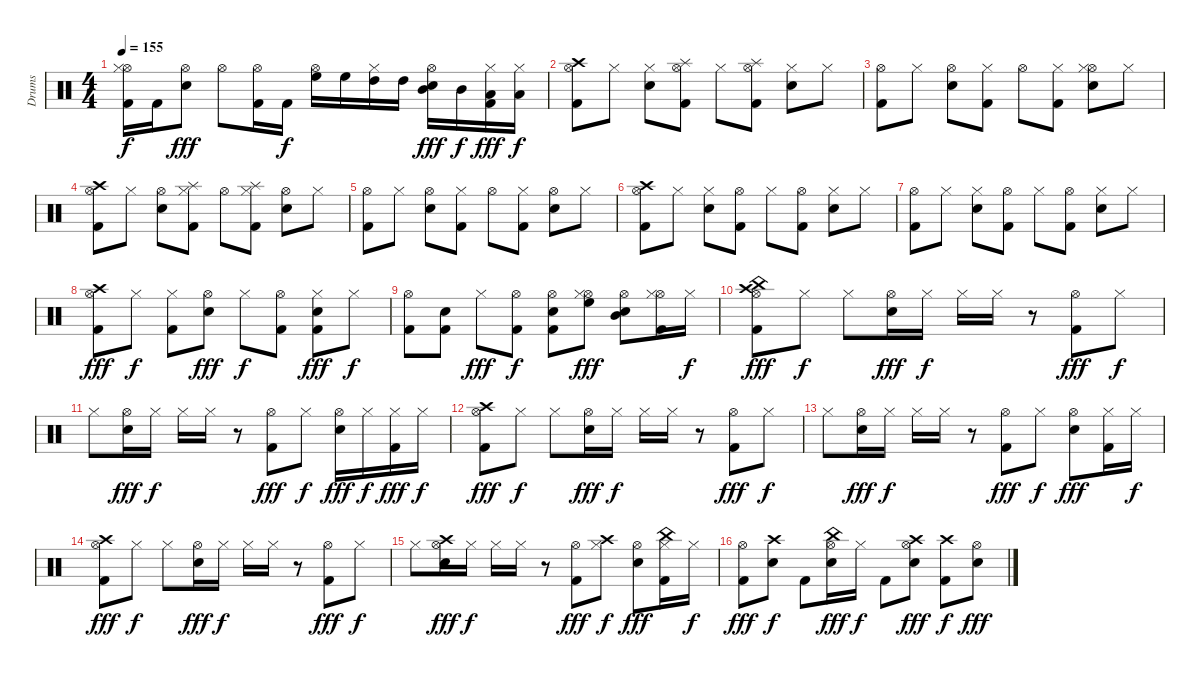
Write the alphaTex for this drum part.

\track ("Drums" "Drums") {instrument percussion}
\staff {score}
\articulation defaults
\ts (4 4)
\tempo 155
\clef neutral
\ks c
("Hi-Hat (open)" "Kick (hit) 2" "Hi-Hat (closed)").16{dy f} "Kick (hit) 2".16 ("Electric Snare (hit)" "Hi-Hat (open)").8{dy fff} "Hi-Hat (open)".8 ("Kick (hit) 2" "Hi-Hat (open)").16 "Kick (hit) 2".16{dy f} ("High Floor Tom (hit)" "Hi-Hat (open)").16 "High Floor Tom (hit)".16 ("High Tom (hit)" "Hi-Hat (closed)").16 "High Tom (hit)".16 ("Mid Tom (hit)" "Hi-Hat (open)" "Electric Snare (hit)").16{dy fff} "Mid Tom (hit)".16{dy f} ("Low Tom (hit)" "Hi-Hat (closed)" "Kick (hit) 2").16{dy fff} ("Low Tom (hit)" "Hi-Hat (closed)").16{dy f} |
("Crash high (hit)" "Hi-Hat (open)" "Kick (hit) 2").8 "Hi-Hat (closed)".8 ("Hi-Hat (closed)" "Electric Snare (hit)").8 ("Splash (hit)" "Hi-Hat (open)" "Kick (hit) 2").8 "Hi-Hat (closed)".8 ("Splash (hit)" "Hi-Hat (open)" "Kick (hit) 2").8 ("Hi-Hat (closed)" "Electric Snare (hit)").8 "Hi-Hat (closed)".8 |
("Kick (hit) 2" "Hi-Hat (open)").8 "Hi-Hat (closed)".8 ("Hi-Hat (open)" "Electric Snare (hit)").8 ("Hi-Hat (closed)" "Kick (hit) 2").8 "Hi-Hat (open)".8 ("Hi-Hat (closed)" "Kick (hit) 2").8 ("Hi-Hat (open)" "Hi-Hat (closed)" "Electric Snare (hit)").8 "Hi-Hat (closed)".8 |
("Crash high (hit)" "Hi-Hat (open)" "Kick (hit) 2").8 "Hi-Hat (closed)".8 ("Hi-Hat (open)" "Electric Snare (hit)").8 ("Hi-Hat (closed)" "Splash (hit)" "Kick (hit) 2").8 "Hi-Hat (open)".8 ("Hi-Hat (closed)" "Splash (hit)" "Kick (hit) 2").8 ("Hi-Hat (open)" "Electric Snare (hit)").8 "Hi-Hat (closed)".8 |
("Kick (hit) 2" "Hi-Hat (open)").8 "Hi-Hat (closed)".8 ("Hi-Hat (open)" "Electric Snare (hit)").8 ("Hi-Hat (closed)" "Kick (hit) 2").8 "Hi-Hat (open)".8 ("Hi-Hat (closed)" "Kick (hit) 2").8 ("Hi-Hat (open)" "Electric Snare (hit)").8 "Hi-Hat (closed)".8 |
("Crash high (hit)" "Hi-Hat (open)" "Kick (hit) 2").8 "Hi-Hat (closed)".8 ("Hi-Hat (closed)" "Electric Snare (hit)").8 ("Hi-Hat (open)" "Kick (hit) 2").8 "Hi-Hat (closed)".8 ("Hi-Hat (open)" "Kick (hit) 2").8 ("Hi-Hat (closed)" "Electric Snare (hit)").8 "Hi-Hat (closed)".8 |
("Kick (hit) 2" "Hi-Hat (open)").8 "Hi-Hat (closed)".8 ("Hi-Hat (closed)" "Electric Snare (hit)").8 ("Kick (hit) 2" "Hi-Hat (open)").8 "Hi-Hat (closed)".8 ("Kick (hit) 2" "Hi-Hat (open)").8 ("Hi-Hat (closed)" "Electric Snare (hit)").8 "Hi-Hat (closed)".8 |
("Crash high (hit)" "Kick (hit) 2" "Hi-Hat (open)").8{dy fff} "Hi-Hat (closed)".8{dy f} ("Kick (hit) 2" "Hi-Hat (closed)").8 ("Hi-Hat (open)" "Electric Snare (hit)").8{dy fff} "Hi-Hat (closed)".8{dy f} ("Kick (hit) 2" "Hi-Hat (open)").8 ("Kick (hit) 2" "Hi-Hat (closed)" "Electric Snare (hit)").8{dy fff} "Hi-Hat (closed)".8{dy f} |
("Kick (hit) 2" "Hi-Hat (open)").8 ("Kick (hit) 2" "Electric Snare (hit)").8 "Hi-Hat (closed)".8{dy fff} ("Kick (hit) 2" "Hi-Hat (open)").8{dy f} ("Kick (hit) 2" "Electric Snare (hit)" "Hi-Hat (open)").8 ("Hi-Hat (open)" "High Floor Tom (hit)" "Hi-Hat (closed)").8{dy fff} ("Mid Tom (hit)" "Hi-Hat (open)" "Electric Snare (hit)").8 ("Hi-Hat (open)" "Hi-Hat (closed)" "Kick (hit) 2").16 "Hi-Hat (closed)".16{dy f} |
("China (hit)" "Crash high (hit)" "Kick (hit) 2" "Hi-Hat (open)").8{dy fff} "Hi-Hat (closed)".8{dy f} "Hi-Hat (closed)".8 ("Hi-Hat (open)" "Electric Snare (hit)").16{dy fff} "Hi-Hat (closed)".16{dy f} "Hi-Hat (closed)".16 "Hi-Hat (closed)".16 r.8 ("Hi-Hat (open)" "Kick (hit) 2").8{dy fff} "Hi-Hat (closed)".8{dy f} |
"Hi-Hat (closed)".8 ("Hi-Hat (open)" "Electric Snare (hit)").16{dy fff} "Hi-Hat (closed)".16{dy f} "Hi-Hat (closed)".16 "Hi-Hat (closed)".16 r.8 ("Hi-Hat (open)" "Kick (hit) 2").8{dy fff} "Hi-Hat (closed)".8{dy f} ("Hi-Hat (open)" "Electric Snare (hit)").16{dy fff} "Hi-Hat (closed)".16{dy f} ("Hi-Hat (closed)" "Kick (hit) 2").16{dy fff} "Hi-Hat (closed)".16{dy f} |
("Crash high (hit)" "Kick (hit) 2" "Hi-Hat (open)").8{dy fff} "Hi-Hat (closed)".8{dy f} "Hi-Hat (closed)".8 ("Hi-Hat (open)" "Electric Snare (hit)").16{dy fff} "Hi-Hat (closed)".16{dy f} "Hi-Hat (closed)".16 "Hi-Hat (closed)".16 r.8 ("Hi-Hat (open)" "Kick (hit) 2").8{dy fff} "Hi-Hat (closed)".8{dy f} |
"Hi-Hat (closed)".8 ("Hi-Hat (open)" "Electric Snare (hit)").16{dy fff} "Hi-Hat (closed)".16{dy f} "Hi-Hat (closed)".16 "Hi-Hat (closed)".16 r.8 ("Hi-Hat (open)" "Kick (hit) 2").8{dy fff} "Hi-Hat (closed)".8{dy f} ("Hi-Hat (open)" "Electric Snare (hit)").8{dy fff} ("Hi-Hat (closed)" "Kick (hit) 2").16 "Hi-Hat (closed)".16{dy f} |
("Crash high (hit)" "Kick (hit) 2" "Hi-Hat (open)").8{dy fff} "Hi-Hat (closed)".8{dy f} "Hi-Hat (closed)".8 ("Hi-Hat (open)" "Electric Snare (hit)").16{dy fff} "Hi-Hat (closed)".16{dy f} "Hi-Hat (closed)".16 "Hi-Hat (closed)".16 r.8 ("Hi-Hat (open)" "Kick (hit) 2").8{dy fff} "Hi-Hat (closed)".8{dy f} |
"Hi-Hat (closed)".8 ("Crash high (hit)" "Hi-Hat (open)" "Electric Snare (hit)").16{dy fff} "Hi-Hat (closed)".16{dy f} "Hi-Hat (closed)".16 "Hi-Hat (closed)".16 r.8 ("Hi-Hat (open)" "Kick (hit) 2").8{dy fff} ("Crash high (hit)" "Hi-Hat (closed)").8{dy f} ("Hi-Hat (open)" "Electric Snare (hit)").8{dy fff} ("China (hit)" "Hi-Hat (closed)" "Kick (hit) 2").16 "Hi-Hat (closed)".16{dy f} |
("Kick (hit) 2" "Hi-Hat (open)").8{dy fff} ("Electric Snare (hit)" "Crash high (hit)").8{dy f} "Kick (hit) 2".8 ("Electric Snare (hit)" "China (hit)" "Hi-Hat (open)").16{dy fff} "Hi-Hat (closed)".16{dy f} "Kick (hit) 2".8 ("Electric Snare (hit)" "Crash high (hit)" "Hi-Hat (open)").8{dy fff} ("Crash high (hit)" "Kick (hit) 2").8{dy f} ("Electric Snare (hit)" "Hi-Hat (open)").8{dy fff}
